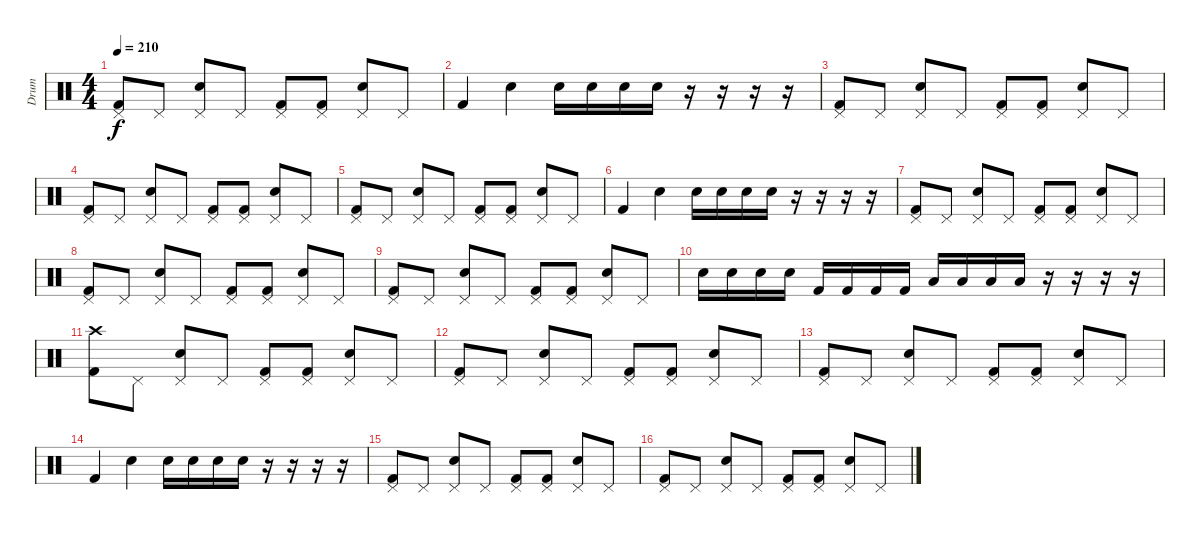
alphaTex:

\track ("Drum" "Drum") {instrument percussion}
\staff {score}
\articulation defaults
\ts (4 4)
\tempo 210
\clef neutral
\ks c
("Pedal Hi-Hat (hit)" "Kick (hit) 2").8{dy f} "Pedal Hi-Hat (hit)".8 ("Pedal Hi-Hat (hit)" "Snare (hit) 2").8 "Pedal Hi-Hat (hit)".8 ("Pedal Hi-Hat (hit)" "Kick (hit) 2").8 ("Pedal Hi-Hat (hit)" "Kick (hit) 2").8 ("Pedal Hi-Hat (hit)" "Snare (hit) 2").8 "Pedal Hi-Hat (hit)".8 |
"Kick (hit) 2".4 "Snare (hit) 2".4 "Snare (hit) 2".16 "Snare (hit) 2".16 "Snare (hit) 2".16 "Snare (hit) 2".16 r.16 r.16 r.16 r.16 |
("Pedal Hi-Hat (hit)" "Kick (hit) 2").8 "Pedal Hi-Hat (hit)".8 ("Pedal Hi-Hat (hit)" "Snare (hit) 2").8 "Pedal Hi-Hat (hit)".8 ("Pedal Hi-Hat (hit)" "Kick (hit) 2").8 ("Pedal Hi-Hat (hit)" "Kick (hit) 2").8 ("Pedal Hi-Hat (hit)" "Snare (hit) 2").8 "Pedal Hi-Hat (hit)".8 |
("Pedal Hi-Hat (hit)" "Kick (hit) 2").8 "Pedal Hi-Hat (hit)".8 ("Pedal Hi-Hat (hit)" "Snare (hit) 2").8 "Pedal Hi-Hat (hit)".8 ("Pedal Hi-Hat (hit)" "Kick (hit) 2").8 ("Pedal Hi-Hat (hit)" "Kick (hit) 2").8 ("Pedal Hi-Hat (hit)" "Snare (hit) 2").8 "Pedal Hi-Hat (hit)".8 |
("Pedal Hi-Hat (hit)" "Kick (hit) 2").8 "Pedal Hi-Hat (hit)".8 ("Pedal Hi-Hat (hit)" "Snare (hit) 2").8 "Pedal Hi-Hat (hit)".8 ("Pedal Hi-Hat (hit)" "Kick (hit) 2").8 ("Pedal Hi-Hat (hit)" "Kick (hit) 2").8 ("Pedal Hi-Hat (hit)" "Snare (hit) 2").8 "Pedal Hi-Hat (hit)".8 |
"Kick (hit) 2".4 "Snare (hit) 2".4 "Snare (hit) 2".16 "Snare (hit) 2".16 "Snare (hit) 2".16 "Snare (hit) 2".16 r.16 r.16 r.16 r.16 |
("Pedal Hi-Hat (hit)" "Kick (hit) 2").8 "Pedal Hi-Hat (hit)".8 ("Pedal Hi-Hat (hit)" "Snare (hit) 2").8 "Pedal Hi-Hat (hit)".8 ("Pedal Hi-Hat (hit)" "Kick (hit) 2").8 ("Pedal Hi-Hat (hit)" "Kick (hit) 2").8 ("Pedal Hi-Hat (hit)" "Snare (hit) 2").8 "Pedal Hi-Hat (hit)".8 |
("Pedal Hi-Hat (hit)" "Kick (hit) 2").8 "Pedal Hi-Hat (hit)".8 ("Pedal Hi-Hat (hit)" "Snare (hit) 2").8 "Pedal Hi-Hat (hit)".8 ("Pedal Hi-Hat (hit)" "Kick (hit) 2").8 ("Pedal Hi-Hat (hit)" "Kick (hit) 2").8 ("Pedal Hi-Hat (hit)" "Snare (hit) 2").8 "Pedal Hi-Hat (hit)".8 |
("Pedal Hi-Hat (hit)" "Kick (hit) 2").8 "Pedal Hi-Hat (hit)".8 ("Pedal Hi-Hat (hit)" "Snare (hit) 2").8 "Pedal Hi-Hat (hit)".8 ("Pedal Hi-Hat (hit)" "Kick (hit) 2").8 ("Pedal Hi-Hat (hit)" "Kick (hit) 2").8 ("Pedal Hi-Hat (hit)" "Snare (hit) 2").8 "Pedal Hi-Hat (hit)".8 |
"Snare (hit) 2".16 "Snare (hit) 2".16 "Snare (hit) 2".16 "Snare (hit) 2".16 "Kick (hit) 2".16 "Kick (hit) 2".16 "Kick (hit) 2".16 "Kick (hit) 2".16 "Low Floor Tom (hit)".16 "Low Floor Tom (hit)".16 "Low Floor Tom (hit)".16 "Low Floor Tom (hit)".16 r.16 r.16 r.16 r.16 |
("Crash high (hit)" "Kick (hit) 2").8 "Pedal Hi-Hat (hit)".8 ("Pedal Hi-Hat (hit)" "Snare (hit) 2").8 "Pedal Hi-Hat (hit)".8 ("Pedal Hi-Hat (hit)" "Kick (hit) 2").8 ("Pedal Hi-Hat (hit)" "Kick (hit) 2").8 ("Pedal Hi-Hat (hit)" "Snare (hit) 2").8 "Pedal Hi-Hat (hit)".8 |
("Pedal Hi-Hat (hit)" "Kick (hit) 2").8 "Pedal Hi-Hat (hit)".8 ("Pedal Hi-Hat (hit)" "Snare (hit) 2").8 "Pedal Hi-Hat (hit)".8 ("Pedal Hi-Hat (hit)" "Kick (hit) 2").8 ("Pedal Hi-Hat (hit)" "Kick (hit) 2").8 ("Pedal Hi-Hat (hit)" "Snare (hit) 2").8 "Pedal Hi-Hat (hit)".8 |
("Pedal Hi-Hat (hit)" "Kick (hit) 2").8 "Pedal Hi-Hat (hit)".8 ("Pedal Hi-Hat (hit)" "Snare (hit) 2").8 "Pedal Hi-Hat (hit)".8 ("Pedal Hi-Hat (hit)" "Kick (hit) 2").8 ("Pedal Hi-Hat (hit)" "Kick (hit) 2").8 ("Pedal Hi-Hat (hit)" "Snare (hit) 2").8 "Pedal Hi-Hat (hit)".8 |
"Kick (hit) 2".4 "Snare (hit) 2".4 "Snare (hit) 2".16 "Snare (hit) 2".16 "Snare (hit) 2".16 "Snare (hit) 2".16 r.16 r.16 r.16 r.16 |
("Pedal Hi-Hat (hit)" "Kick (hit) 2").8 "Pedal Hi-Hat (hit)".8 ("Pedal Hi-Hat (hit)" "Snare (hit) 2").8 "Pedal Hi-Hat (hit)".8 ("Pedal Hi-Hat (hit)" "Kick (hit) 2").8 ("Pedal Hi-Hat (hit)" "Kick (hit) 2").8 ("Pedal Hi-Hat (hit)" "Snare (hit) 2").8 "Pedal Hi-Hat (hit)".8 |
("Pedal Hi-Hat (hit)" "Kick (hit) 2").8 "Pedal Hi-Hat (hit)".8 ("Pedal Hi-Hat (hit)" "Snare (hit) 2").8 "Pedal Hi-Hat (hit)".8 ("Pedal Hi-Hat (hit)" "Kick (hit) 2").8 ("Pedal Hi-Hat (hit)" "Kick (hit) 2").8 ("Pedal Hi-Hat (hit)" "Snare (hit) 2").8 "Pedal Hi-Hat (hit)".8
